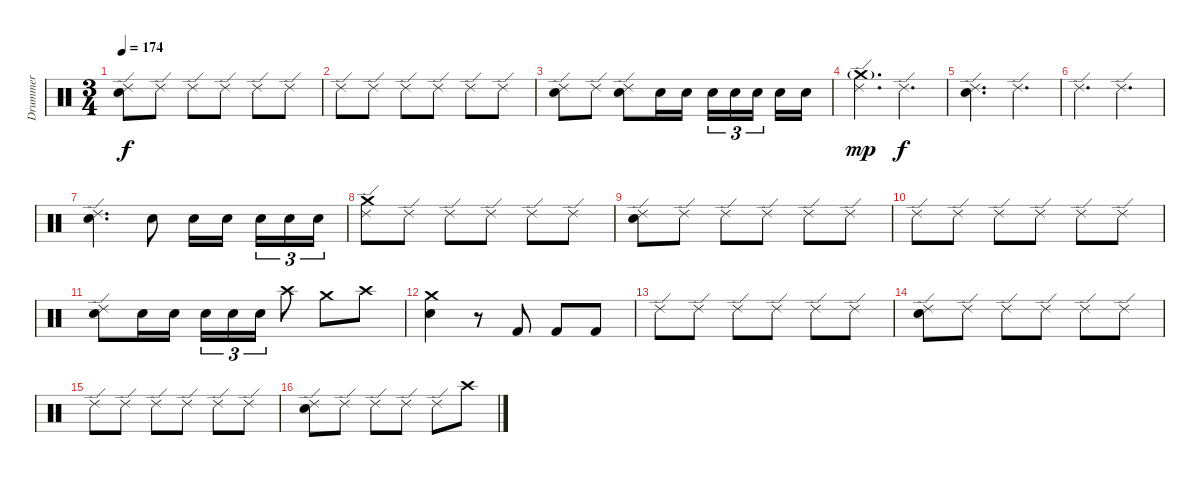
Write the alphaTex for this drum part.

\track ("Drummer" "Drummer") {instrument percussion}
\staff {score}
\articulation defaults
\ts (3 4)
\tempo 174
\clef neutral
\ks c
("Ride (edge) 2" "Electric Snare (hit)").8{dy f} "Ride (edge) 2".8 "Ride (edge) 2".8 "Ride (edge) 2".8 "Ride (edge) 2".8 "Ride (edge) 2".8 |
"Ride (edge) 2".8 "Ride (edge) 2".8 "Ride (edge) 2".8 "Ride (edge) 2".8 "Ride (edge) 2".8 "Ride (edge) 2".8 |
("Ride (edge) 2" "Electric Snare (hit)").8 "Ride (edge) 2".8 ("Ride (edge) 2" "Electric Snare (hit)").8 "Electric Snare (hit)".16 "Electric Snare (hit)".16 "Electric Snare (hit)".16{tu (3 2)} "Electric Snare (hit)".16{tu (3 2)} "Electric Snare (hit)".16{tu (3 2) beam splitsecondary} "Electric Snare (hit)".16 "Electric Snare (hit)".16 |
("Ride (edge) 2" "Crash medium (hit)"{g}).4{d dy mp} "Ride (edge) 2".4{d dy f} |
("Ride (edge) 2" "Electric Snare (hit)").4{d} "Ride (edge) 2".4{d} |
"Ride (edge) 2".4{d} "Ride (edge) 2".4{d} |
("Ride (edge) 2" "Electric Snare (hit)").4{d} "Electric Snare (hit)".8 "Electric Snare (hit)".16 "Electric Snare (hit)".16{beam splitsecondary} "Electric Snare (hit)".16{tu (3 2)} "Electric Snare (hit)".16{tu (3 2)} "Electric Snare (hit)".16{tu (3 2)} |
("Ride (edge) 2" "Crash medium (hit)").8 "Ride (edge) 2".8 "Ride (edge) 2".8 "Ride (edge) 2".8 "Ride (edge) 2".8 "Ride (edge) 2".8 |
("Ride (edge) 2" "Electric Snare (hit)").8 "Ride (edge) 2".8 "Ride (edge) 2".8 "Ride (edge) 2".8 "Ride (edge) 2".8 "Ride (edge) 2".8 |
"Ride (edge) 2".8 "Ride (edge) 2".8 "Ride (edge) 2".8 "Ride (edge) 2".8 "Ride (edge) 2".8 "Ride (edge) 2".8 |
("Ride (edge) 2" "Electric Snare (hit)").8 "Electric Snare (hit)".16 "Electric Snare (hit)".16 "Electric Snare (hit)".16{tu (3 2)} "Electric Snare (hit)".16{tu (3 2)} "Electric Snare (hit)".16{tu (3 2)} "Crash high (hit)".8 "Crash medium (hit)".8 "Crash high (hit)".8 |
("Crash medium (hit)" "Electric Snare (hit)").4 r.8 "Kick (hit) 2".8 "Kick (hit) 2".8 "Kick (hit) 2".8 |
"Ride (edge) 2".8 "Ride (edge) 2".8 "Ride (edge) 2".8 "Ride (edge) 2".8 "Ride (edge) 2".8 "Ride (edge) 2".8 |
("Ride (edge) 2" "Electric Snare (hit)").8 "Ride (edge) 2".8 "Ride (edge) 2".8 "Ride (edge) 2".8 "Ride (edge) 2".8 "Ride (edge) 2".8 |
"Ride (edge) 2".8 "Ride (edge) 2".8 "Ride (edge) 2".8 "Ride (edge) 2".8 "Ride (edge) 2".8 "Ride (edge) 2".8 |
("Ride (edge) 2" "Electric Snare (hit)").8 "Ride (edge) 2".8 "Ride (edge) 2".8 "Ride (edge) 2".8 "Ride (edge) 2".8 "Crash high (hit)".8
